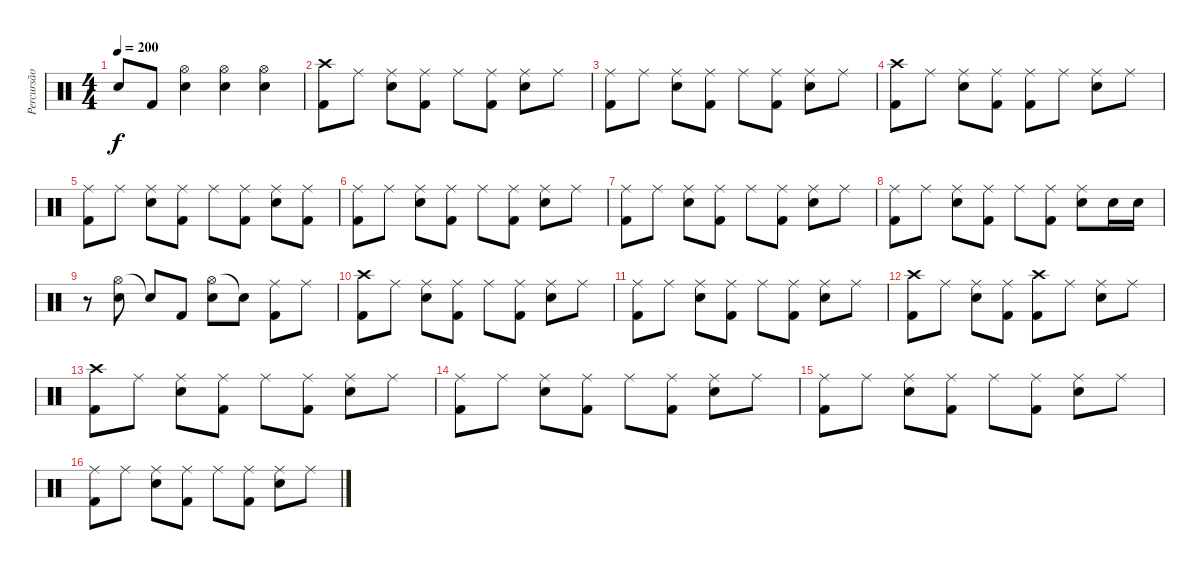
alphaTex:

\track ("Percursão" "Percursão") {instrument percussion}
\staff {score}
\articulation defaults
\ts (4 4)
\tempo 200
\clef neutral
\ks c "Snare (hit)"{t}.8{dy f} "Kick (hit) 2".8
("Hi-Hat (open)" "Electric Snare (hit)").4 ("Hi-Hat (open)" "Electric Snare (hit)").4 ("Hi-Hat (open)" "Electric Snare (hit)").4 |
("Crash high (hit)" "Kick (hit) 2").8 "Ride (middle)".8 ("Ride (middle)" "Electric Snare (hit)").8 ("Ride (middle)" "Kick (hit) 2").8 "Ride (middle)".8 ("Ride (middle)" "Kick (hit) 2").8 ("Ride (middle)" "Electric Snare (hit)").8 "Ride (middle)".8 |
("Ride (middle)" "Kick (hit) 2").8 "Ride (middle)".8 ("Ride (middle)" "Electric Snare (hit)").8 ("Ride (middle)" "Kick (hit) 2").8 "Ride (middle)".8 ("Ride (middle)" "Kick (hit) 2").8 ("Ride (middle)" "Electric Snare (hit)").8 "Ride (middle)".8 |
("Crash high (hit)" "Kick (hit) 2").8 "Ride (middle)".8 ("Ride (middle)" "Electric Snare (hit)").8 ("Ride (middle)" "Kick (hit) 2").8 ("Ride (middle)" "Kick (hit) 2").8 "Ride (middle)".8 ("Ride (middle)" "Electric Snare (hit)").8 "Ride (middle)".8 |
("Ride (middle)" "Kick (hit) 2").8 "Ride (middle)".8 ("Ride (middle)" "Electric Snare (hit)").8 ("Ride (middle)" "Kick (hit) 2").8 "Ride (middle)".8 ("Ride (middle)" "Kick (hit) 2").8 ("Ride (middle)" "Electric Snare (hit)").8 ("Ride (middle)" "Kick (hit) 2").8 |
("Ride (middle)" "Kick (hit) 2").8 "Ride (middle)".8 ("Ride (middle)" "Electric Snare (hit)").8 ("Ride (middle)" "Kick (hit) 2").8 "Ride (middle)".8 ("Ride (middle)" "Kick (hit) 2").8 ("Ride (middle)" "Electric Snare (hit)").8 "Ride (middle)".8 |
("Ride (middle)" "Kick (hit) 2").8 "Ride (middle)".8 ("Ride (middle)" "Electric Snare (hit)").8 ("Ride (middle)" "Kick (hit) 2").8 "Ride (middle)".8 ("Ride (middle)" "Kick (hit) 2").8 ("Ride (middle)" "Electric Snare (hit)").8 "Ride (middle)".8 |
("Ride (middle)" "Kick (hit) 2").8 "Ride (middle)".8 ("Ride (middle)" "Electric Snare (hit)").8 ("Ride (middle)" "Kick (hit) 2").8 "Ride (middle)".8 ("Ride (middle)" "Kick (hit) 2").8 ("Ride (middle)" "Electric Snare (hit)").8 "Electric Snare (hit)".16 "Electric Snare (hit)".16 |
r.8 ("Hi-Hat (open)" "Electric Snare (hit)").8 "Snare (hit)"{t}.8 "Kick (hit) 2".8 ("Hi-Hat (open)" "Electric Snare (hit)").8 "Snare (hit)"{t}.8 ("Ride (middle)" "Kick (hit) 2").8 "Ride (middle)".8 |
("Crash high (hit)" "Kick (hit) 2").8 "Ride (middle)".8 ("Ride (middle)" "Electric Snare (hit)").8 ("Ride (middle)" "Kick (hit) 2").8 "Ride (middle)".8 ("Ride (middle)" "Kick (hit) 2").8 ("Ride (middle)" "Electric Snare (hit)").8 "Ride (middle)".8 |
("Ride (middle)" "Kick (hit) 2").8 "Ride (middle)".8 ("Ride (middle)" "Electric Snare (hit)").8 ("Ride (middle)" "Kick (hit) 2").8 "Ride (middle)".8 ("Ride (middle)" "Kick (hit) 2").8 ("Ride (middle)" "Electric Snare (hit)").8 "Ride (middle)".8 |
("Crash high (hit)" "Kick (hit) 2").8 "Ride (middle)".8 ("Ride (middle)" "Electric Snare (hit)").8 ("Ride (middle)" "Kick (hit) 2").8 ("Crash high (hit)" "Kick (hit) 2").8 "Ride (middle)".8 ("Ride (middle)" "Electric Snare (hit)").8 "Ride (middle)".8 |
("Crash high (hit)" "Kick (hit) 2").8 "Ride (middle)".8 ("Ride (middle)" "Electric Snare (hit)").8 ("Ride (middle)" "Kick (hit) 2").8 "Ride (middle)".8 ("Ride (middle)" "Kick (hit) 2").8 ("Ride (middle)" "Electric Snare (hit)").8 "Ride (middle)".8 |
("Ride (middle)" "Kick (hit) 2").8 "Ride (middle)".8 ("Ride (middle)" "Electric Snare (hit)").8 ("Ride (middle)" "Kick (hit) 2").8 "Ride (middle)".8 ("Ride (middle)" "Kick (hit) 2").8 ("Ride (middle)" "Electric Snare (hit)").8 "Ride (middle)".8 |
("Ride (middle)" "Kick (hit) 2").8 "Ride (middle)".8 ("Ride (middle)" "Electric Snare (hit)").8 ("Ride (middle)" "Kick (hit) 2").8 "Ride (middle)".8 ("Ride (middle)" "Kick (hit) 2").8 ("Ride (middle)" "Electric Snare (hit)").8 "Ride (middle)".8 |
("Ride (middle)" "Kick (hit) 2").8 "Ride (middle)".8 ("Ride (middle)" "Electric Snare (hit)").8 ("Ride (middle)" "Kick (hit) 2").8 "Ride (middle)".8 ("Ride (middle)" "Kick (hit) 2").8 ("Ride (middle)" "Electric Snare (hit)").8 "Ride (middle)".8
